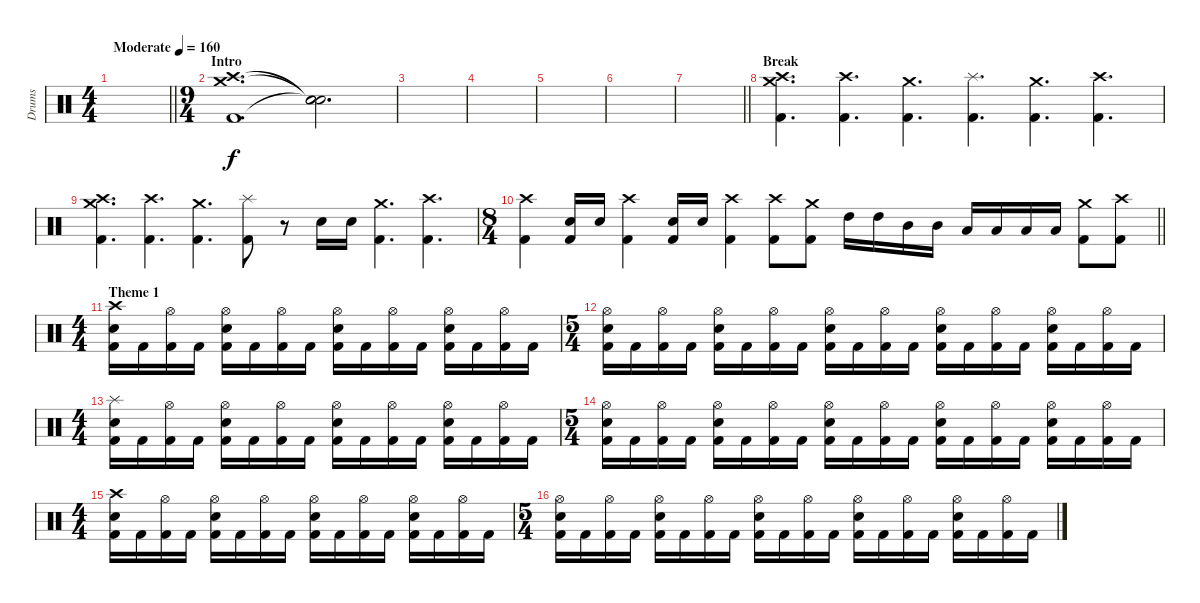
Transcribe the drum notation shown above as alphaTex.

\track ("Drums" "Drums") {instrument percussion}
\staff {score}
\articulation defaults
\ts (4 4)
\tempo (160 "Moderate")
\clef neutral
\barLineRight lightlight
\ks c
|
\ts (9 4)
\section ("" "Intro")
("Crash high (hit)" "Crash medium (hit)" "Kick (hit) 2").1{d} ("Snare (hit)"{t} "Snare (hit)"{t} "Snare (hit)"{t}).2{d volume 0} |
|
|
|
|
\barLineRight lightlight
|
\section ("" "Break")
("Crash high (hit)" "Crash medium (hit)" "Kick (hit) 2").4{d volume 16} ("Crash high (hit)" "Kick (hit) 2").4{d} ("Crash medium (hit)" "Kick (hit) 2").4{d} ("Splash (hit)" "Kick (hit) 2").4{d} ("Crash medium (hit)" "Kick (hit) 2").4{d} ("Crash high (hit)" "Kick (hit) 2").4{d} |
("Crash high (hit)" "Crash medium (hit)" "Kick (hit) 2").4{d} ("Crash high (hit)" "Kick (hit) 2").4{d} ("Crash medium (hit)" "Kick (hit) 2").4{d} ("Splash (hit)" "Kick (hit) 2").8 r.8 "Snare (hit) 2".16 "Snare (hit) 2".16 ("Crash medium (hit)" "Kick (hit) 2").4{d} ("Crash high (hit)" "Kick (hit) 2").4{d} |
\ts (8 4)
\barLineRight lightlight
("Crash high (hit)" "Kick (hit) 2").4 ("Snare (hit) 2" "Kick (hit) 2").16 "Snare (hit) 2".16 ("Crash high (hit)" "Kick (hit) 2").4 ("Snare (hit) 2" "Kick (hit) 2").16 "Snare (hit) 2".16 ("Crash high (hit)" "Kick (hit) 2").4 ("Crash high (hit)" "Kick (hit) 2").8 ("Crash medium (hit)" "Kick (hit) 2").8 "High Tom (hit)".16 "High Tom (hit)".16 "Mid Tom (hit)".16 "Mid Tom (hit)".16 "Low Tom (hit)".16 "Low Tom (hit)".16 "Low Tom (hit)".16 "Low Tom (hit)".16 ("Crash medium (hit)" "Kick (hit) 2").8 ("Crash high (hit)" "Kick (hit) 2").8 |
\ts (4 4)
\section ("" "Theme 1")
("Crash high (hit)" "Snare (hit) 2" "Kick (hit) 2").16 "Kick (hit) 2".16 ("Hi-Hat (open)" "Kick (hit) 2").16 "Kick (hit) 2".16 ("Hi-Hat (open)" "Snare (hit) 2" "Kick (hit) 2").16 "Kick (hit) 2".16 ("Hi-Hat (open)" "Kick (hit) 2").16 "Kick (hit) 2".16 ("Hi-Hat (open)" "Snare (hit) 2" "Kick (hit) 2").16 "Kick (hit) 2".16 ("Hi-Hat (open)" "Kick (hit) 2").16 "Kick (hit) 2".16 ("Hi-Hat (open)" "Snare (hit) 2" "Kick (hit) 2").16 "Kick (hit) 2".16 ("Hi-Hat (open)" "Kick (hit) 2").16 "Kick (hit) 2".16 |
\ts (5 4)
("Hi-Hat (open)" "Snare (hit) 2" "Kick (hit) 2").16 "Kick (hit) 2".16 ("Hi-Hat (open)" "Kick (hit) 2").16 "Kick (hit) 2".16 ("Hi-Hat (open)" "Snare (hit) 2" "Kick (hit) 2").16 "Kick (hit) 2".16 ("Hi-Hat (open)" "Kick (hit) 2").16 "Kick (hit) 2".16 ("Hi-Hat (open)" "Snare (hit) 2" "Kick (hit) 2").16 "Kick (hit) 2".16 ("Hi-Hat (open)" "Kick (hit) 2").16 "Kick (hit) 2".16 ("Hi-Hat (open)" "Snare (hit) 2" "Kick (hit) 2").16 "Kick (hit) 2".16 ("Hi-Hat (open)" "Kick (hit) 2").16 "Kick (hit) 2".16 ("Hi-Hat (open)" "Snare (hit) 2" "Kick (hit) 2").16 "Kick (hit) 2".16 ("Hi-Hat (open)" "Kick (hit) 2").16 "Kick (hit) 2".16 |
\ts (4 4)
("Splash (hit)" "Snare (hit) 2" "Kick (hit) 2").16 "Kick (hit) 2".16 ("Hi-Hat (open)" "Kick (hit) 2").16 "Kick (hit) 2".16 ("Hi-Hat (open)" "Snare (hit) 2" "Kick (hit) 2").16 "Kick (hit) 2".16 ("Hi-Hat (open)" "Kick (hit) 2").16 "Kick (hit) 2".16 ("Hi-Hat (open)" "Snare (hit) 2" "Kick (hit) 2").16 "Kick (hit) 2".16 ("Hi-Hat (open)" "Kick (hit) 2").16 "Kick (hit) 2".16 ("Hi-Hat (open)" "Snare (hit) 2" "Kick (hit) 2").16 "Kick (hit) 2".16 ("Hi-Hat (open)" "Kick (hit) 2").16 "Kick (hit) 2".16 |
\ts (5 4)
("Hi-Hat (open)" "Snare (hit) 2" "Kick (hit) 2").16 "Kick (hit) 2".16 ("Hi-Hat (open)" "Kick (hit) 2").16 "Kick (hit) 2".16 ("Hi-Hat (open)" "Snare (hit) 2" "Kick (hit) 2").16 "Kick (hit) 2".16 ("Hi-Hat (open)" "Kick (hit) 2").16 "Kick (hit) 2".16 ("Hi-Hat (open)" "Snare (hit) 2" "Kick (hit) 2").16 "Kick (hit) 2".16 ("Hi-Hat (open)" "Kick (hit) 2").16 "Kick (hit) 2".16 ("Hi-Hat (open)" "Snare (hit) 2" "Kick (hit) 2").16 "Kick (hit) 2".16 ("Hi-Hat (open)" "Kick (hit) 2").16 "Kick (hit) 2".16 ("Hi-Hat (open)" "Snare (hit) 2" "Kick (hit) 2").16 "Kick (hit) 2".16 ("Hi-Hat (open)" "Kick (hit) 2").16 "Kick (hit) 2".16 |
\ts (4 4)
("Crash high (hit)" "Snare (hit) 2" "Kick (hit) 2").16 "Kick (hit) 2".16 ("Hi-Hat (open)" "Kick (hit) 2").16 "Kick (hit) 2".16 ("Hi-Hat (open)" "Snare (hit) 2" "Kick (hit) 2").16 "Kick (hit) 2".16 ("Hi-Hat (open)" "Kick (hit) 2").16 "Kick (hit) 2".16 ("Hi-Hat (open)" "Snare (hit) 2" "Kick (hit) 2").16 "Kick (hit) 2".16 ("Hi-Hat (open)" "Kick (hit) 2").16 "Kick (hit) 2".16 ("Hi-Hat (open)" "Snare (hit) 2" "Kick (hit) 2").16 "Kick (hit) 2".16 ("Hi-Hat (open)" "Kick (hit) 2").16 "Kick (hit) 2".16 |
\ts (5 4)
("Hi-Hat (open)" "Snare (hit) 2" "Kick (hit) 2").16 "Kick (hit) 2".16 ("Hi-Hat (open)" "Kick (hit) 2").16 "Kick (hit) 2".16 ("Hi-Hat (open)" "Snare (hit) 2" "Kick (hit) 2").16 "Kick (hit) 2".16 ("Hi-Hat (open)" "Kick (hit) 2").16 "Kick (hit) 2".16 ("Hi-Hat (open)" "Snare (hit) 2" "Kick (hit) 2").16 "Kick (hit) 2".16 ("Hi-Hat (open)" "Kick (hit) 2").16 "Kick (hit) 2".16 ("Hi-Hat (open)" "Snare (hit) 2" "Kick (hit) 2").16 "Kick (hit) 2".16 ("Hi-Hat (open)" "Kick (hit) 2").16 "Kick (hit) 2".16 ("Hi-Hat (open)" "Snare (hit) 2" "Kick (hit) 2").16 "Kick (hit) 2".16 ("Hi-Hat (open)" "Kick (hit) 2").16 "Kick (hit) 2".16
